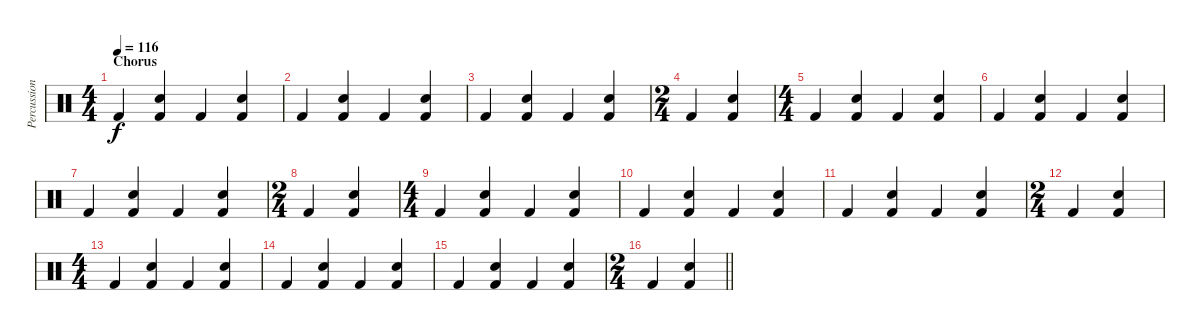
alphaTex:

\track ("Percussion" "Percussion") {instrument percussion}
\staff {score}
\articulation defaults
\ts (4 4)
\section ("" "Chorus")
\tempo 116
\clef neutral
\ks c "Kick (hit) 2".4{dy f}
("Hand Clap (hit)" "Kick (hit) 2").4 "Kick (hit) 2".4 ("Hand Clap (hit)" "Kick (hit) 2").4 |
"Kick (hit) 2".4 ("Hand Clap (hit)" "Kick (hit) 2").4 "Kick (hit) 2".4 ("Hand Clap (hit)" "Kick (hit) 2").4 |
"Kick (hit) 2".4 ("Hand Clap (hit)" "Kick (hit) 2").4 "Kick (hit) 2".4 ("Hand Clap (hit)" "Kick (hit) 2").4 |
\ts (2 4)
"Kick (hit) 2".4 ("Hand Clap (hit)" "Kick (hit) 2").4 |
\ts (4 4)
"Kick (hit) 2".4 ("Hand Clap (hit)" "Kick (hit) 2").4 "Kick (hit) 2".4 ("Hand Clap (hit)" "Kick (hit) 2").4 |
"Kick (hit) 2".4 ("Hand Clap (hit)" "Kick (hit) 2").4 "Kick (hit) 2".4 ("Hand Clap (hit)" "Kick (hit) 2").4 |
"Kick (hit) 2".4 ("Hand Clap (hit)" "Kick (hit) 2").4 "Kick (hit) 2".4 ("Hand Clap (hit)" "Kick (hit) 2").4 |
\ts (2 4)
"Kick (hit) 2".4 ("Hand Clap (hit)" "Kick (hit) 2").4 |
\ts (4 4)
"Kick (hit) 2".4 ("Hand Clap (hit)" "Kick (hit) 2").4 "Kick (hit) 2".4 ("Hand Clap (hit)" "Kick (hit) 2").4 |
"Kick (hit) 2".4 ("Hand Clap (hit)" "Kick (hit) 2").4 "Kick (hit) 2".4 ("Hand Clap (hit)" "Kick (hit) 2").4 |
"Kick (hit) 2".4 ("Hand Clap (hit)" "Kick (hit) 2").4 "Kick (hit) 2".4 ("Hand Clap (hit)" "Kick (hit) 2").4 |
\ts (2 4)
"Kick (hit) 2".4 ("Hand Clap (hit)" "Kick (hit) 2").4 |
\ts (4 4)
"Kick (hit) 2".4 ("Hand Clap (hit)" "Kick (hit) 2").4 "Kick (hit) 2".4 ("Hand Clap (hit)" "Kick (hit) 2").4 |
"Kick (hit) 2".4 ("Hand Clap (hit)" "Kick (hit) 2").4 "Kick (hit) 2".4 ("Hand Clap (hit)" "Kick (hit) 2").4 |
"Kick (hit) 2".4 ("Hand Clap (hit)" "Kick (hit) 2").4 "Kick (hit) 2".4 ("Hand Clap (hit)" "Kick (hit) 2").4 |
\ts (2 4)
\barLineRight lightlight "Kick (hit) 2".4
("Hand Clap (hit)" "Kick (hit) 2").4
